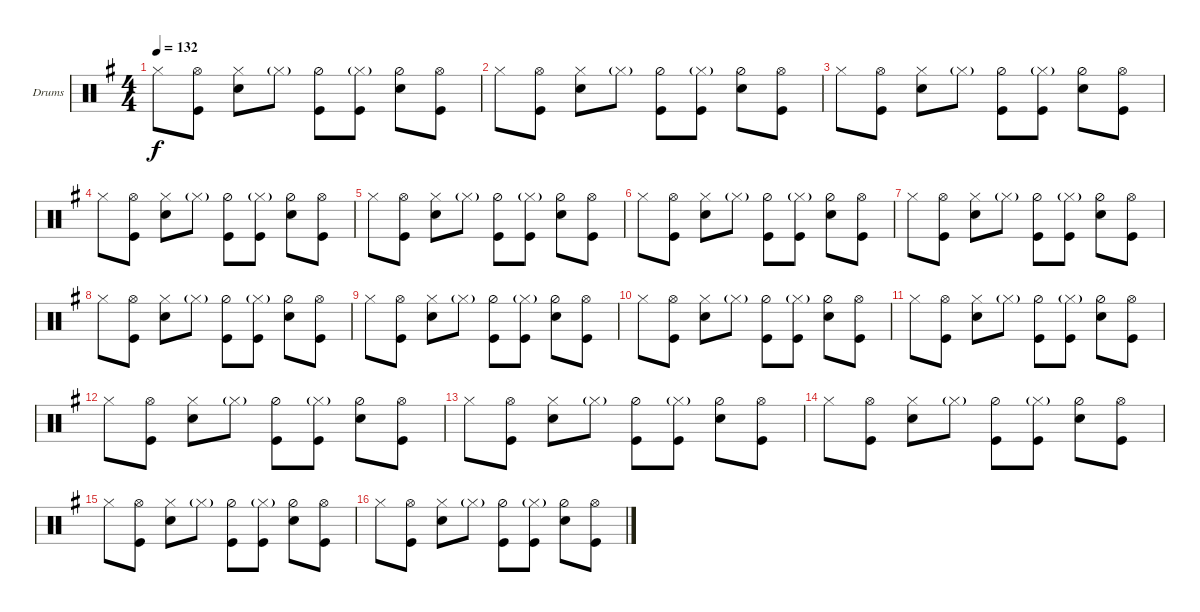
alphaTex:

\bracketExtendMode groupsimilarinstruments
\firstSystemTrackNameOrientation horizontal
\otherSystemsTrackNameOrientation horizontal
\track ("Drumkit" "Drums") {instrument percussion}
\staff {score}
\articulation defaults
\ts (4 4)
\tempo 132
\clef neutral
\scale
0.333333
\ks g "Hi-Hat (closed)".8{dy f}
("Hi-Hat (open)" "Kick (hit)").8 ("Hi-Hat (closed)" "Snare (hit) 2").8 "Hi-Hat (closed)"{g}.8 ("Hi-Hat (half)" "Kick (hit)").8 ("Hi-Hat (closed)"{g} "Kick (hit)").8 ("Hi-Hat (half)" "Snare (hit) 2").8 ("Kick (hit)" "Hi-Hat (open)").8 |
\scale
0.333333 "Hi-Hat (closed)".8 ("Hi-Hat (open)" "Kick (hit)").8 ("Hi-Hat (closed)" "Snare (hit) 2").8 "Hi-Hat (closed)"{g}.8 ("Hi-Hat (half)" "Kick (hit)").8 ("Hi-Hat (closed)"{g} "Kick (hit)").8 ("Hi-Hat (half)" "Snare (hit) 2").8 ("Kick (hit)" "Hi-Hat (open)").8 |
\scale
0.333333 "Hi-Hat (closed)".8 ("Hi-Hat (open)" "Kick (hit)").8 ("Hi-Hat (closed)" "Snare (hit) 2").8 "Hi-Hat (closed)"{g}.8 ("Hi-Hat (half)" "Kick (hit)").8 ("Hi-Hat (closed)"{g} "Kick (hit)").8 ("Hi-Hat (half)" "Snare (hit) 2").8 ("Kick (hit)" "Hi-Hat (open)").8 |
\scale
0.333333 "Hi-Hat (closed)".8 ("Hi-Hat (open)" "Kick (hit)").8 ("Hi-Hat (closed)" "Snare (hit) 2").8 "Hi-Hat (closed)"{g}.8 ("Hi-Hat (half)" "Kick (hit)").8 ("Hi-Hat (closed)"{g} "Kick (hit)").8 ("Hi-Hat (half)" "Snare (hit) 2").8 ("Kick (hit)" "Hi-Hat (open)").8 |
\scale
0.333333 "Hi-Hat (closed)".8 ("Hi-Hat (open)" "Kick (hit)").8 ("Hi-Hat (closed)" "Snare (hit) 2").8 "Hi-Hat (closed)"{g}.8 ("Hi-Hat (half)" "Kick (hit)").8 ("Hi-Hat (closed)"{g} "Kick (hit)").8 ("Hi-Hat (half)" "Snare (hit) 2").8 ("Kick (hit)" "Hi-Hat (open)").8 |
\scale
0.333333 "Hi-Hat (closed)".8 ("Hi-Hat (open)" "Kick (hit)").8 ("Hi-Hat (closed)" "Snare (hit) 2").8 "Hi-Hat (closed)"{g}.8 ("Hi-Hat (half)" "Kick (hit)").8 ("Hi-Hat (closed)"{g} "Kick (hit)").8 ("Hi-Hat (half)" "Snare (hit) 2").8 ("Kick (hit)" "Hi-Hat (open)").8 |
\scale
0.333333 "Hi-Hat (closed)".8 ("Hi-Hat (open)" "Kick (hit)").8 ("Hi-Hat (closed)" "Snare (hit) 2").8 "Hi-Hat (closed)"{g}.8 ("Hi-Hat (half)" "Kick (hit)").8 ("Hi-Hat (closed)"{g} "Kick (hit)").8 ("Hi-Hat (half)" "Snare (hit) 2").8 ("Kick (hit)" "Hi-Hat (open)").8 |
\scale
0.333333 "Hi-Hat (closed)".8 ("Hi-Hat (open)" "Kick (hit)").8 ("Hi-Hat (closed)" "Snare (hit) 2").8 "Hi-Hat (closed)"{g}.8 ("Hi-Hat (half)" "Kick (hit)").8 ("Hi-Hat (closed)"{g} "Kick (hit)").8 ("Hi-Hat (half)" "Snare (hit) 2").8 ("Kick (hit)" "Hi-Hat (open)").8 |
\scale
0.333333 "Hi-Hat (closed)".8 ("Hi-Hat (open)" "Kick (hit)").8 ("Hi-Hat (closed)" "Snare (hit) 2").8 "Hi-Hat (closed)"{g}.8 ("Hi-Hat (half)" "Kick (hit)").8 ("Hi-Hat (closed)"{g} "Kick (hit)").8 ("Hi-Hat (half)" "Snare (hit) 2").8 ("Kick (hit)" "Hi-Hat (open)").8 |
\scale
0.333333 "Hi-Hat (closed)".8 ("Hi-Hat (open)" "Kick (hit)").8 ("Hi-Hat (closed)" "Snare (hit) 2").8 "Hi-Hat (closed)"{g}.8 ("Hi-Hat (half)" "Kick (hit)").8 ("Hi-Hat (closed)"{g} "Kick (hit)").8 ("Hi-Hat (half)" "Snare (hit) 2").8 ("Kick (hit)" "Hi-Hat (open)").8 |
\scale
0.333333 "Hi-Hat (closed)".8 ("Hi-Hat (open)" "Kick (hit)").8 ("Hi-Hat (closed)" "Snare (hit) 2").8 "Hi-Hat (closed)"{g}.8 ("Hi-Hat (half)" "Kick (hit)").8 ("Hi-Hat (closed)"{g} "Kick (hit)").8 ("Hi-Hat (half)" "Snare (hit) 2").8 ("Kick (hit)" "Hi-Hat (open)").8 |
\scale
0.333333 "Hi-Hat (closed)".8 ("Hi-Hat (open)" "Kick (hit)").8 ("Hi-Hat (closed)" "Snare (hit) 2").8 "Hi-Hat (closed)"{g}.8 ("Hi-Hat (half)" "Kick (hit)").8 ("Hi-Hat (closed)"{g} "Kick (hit)").8 ("Hi-Hat (half)" "Snare (hit) 2").8 ("Kick (hit)" "Hi-Hat (open)").8 |
\scale
0.333333 "Hi-Hat (closed)".8 ("Hi-Hat (open)" "Kick (hit)").8 ("Hi-Hat (closed)" "Snare (hit) 2").8 "Hi-Hat (closed)"{g}.8 ("Hi-Hat (half)" "Kick (hit)").8 ("Hi-Hat (closed)"{g} "Kick (hit)").8 ("Hi-Hat (half)" "Snare (hit) 2").8 ("Kick (hit)" "Hi-Hat (open)").8 |
\scale
0.333333 "Hi-Hat (closed)".8 ("Hi-Hat (open)" "Kick (hit)").8 ("Hi-Hat (closed)" "Snare (hit) 2").8 "Hi-Hat (closed)"{g}.8 ("Hi-Hat (half)" "Kick (hit)").8 ("Hi-Hat (closed)"{g} "Kick (hit)").8 ("Hi-Hat (half)" "Snare (hit) 2").8 ("Kick (hit)" "Hi-Hat (open)").8 |
\scale
0.333333 "Hi-Hat (closed)".8 ("Hi-Hat (open)" "Kick (hit)").8 ("Hi-Hat (closed)" "Snare (hit) 2").8 "Hi-Hat (closed)"{g}.8 ("Hi-Hat (half)" "Kick (hit)").8 ("Hi-Hat (closed)"{g} "Kick (hit)").8 ("Hi-Hat (half)" "Snare (hit) 2").8 ("Kick (hit)" "Hi-Hat (open)").8 |
\scale
0.333333 "Hi-Hat (closed)".8 ("Hi-Hat (open)" "Kick (hit)").8 ("Hi-Hat (closed)" "Snare (hit) 2").8 "Hi-Hat (closed)"{g}.8 ("Hi-Hat (half)" "Kick (hit)").8 ("Hi-Hat (closed)"{g} "Kick (hit)").8 ("Hi-Hat (half)" "Snare (hit) 2").8 ("Kick (hit)" "Hi-Hat (open)").8
